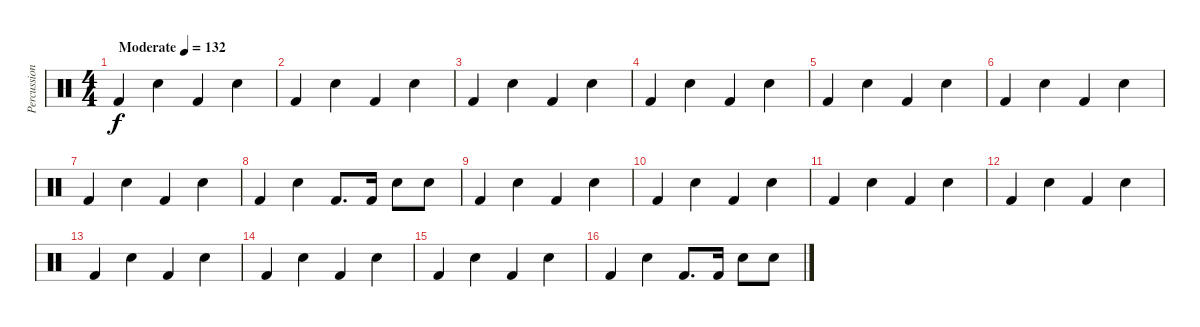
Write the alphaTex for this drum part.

\track ("Percussion" "Percussion") {instrument percussion}
\staff {score}
\articulation defaults
\ts (4 4)
\tempo (132 "Moderate")
\clef neutral
\ks c "Kick (hit) 2".4{dy f} "Snare (hit) 2".4 "Kick (hit) 2".4 "Snare (hit) 2".4
|
"Kick (hit) 2".4 "Snare (hit) 2".4 "Kick (hit) 2".4 "Snare (hit) 2".4 |
"Kick (hit) 2".4 "Snare (hit) 2".4 "Kick (hit) 2".4 "Snare (hit) 2".4 |
"Kick (hit) 2".4 "Snare (hit) 2".4 "Kick (hit) 2".4 "Snare (hit) 2".4 |
"Kick (hit) 2".4 "Snare (hit) 2".4 "Kick (hit) 2".4 "Snare (hit) 2".4 |
"Kick (hit) 2".4 "Snare (hit) 2".4 "Kick (hit) 2".4 "Snare (hit) 2".4 |
"Kick (hit) 2".4 "Snare (hit) 2".4 "Kick (hit) 2".4 "Snare (hit) 2".4 |
"Kick (hit) 2".4 "Snare (hit) 2".4 "Kick (hit) 2".8{d} "Kick (hit) 2".16 "Snare (hit) 2".8 "Snare (hit) 2".8 |
"Kick (hit) 2".4 "Snare (hit) 2".4 "Kick (hit) 2".4 "Snare (hit) 2".4 |
"Kick (hit) 2".4 "Snare (hit) 2".4 "Kick (hit) 2".4 "Snare (hit) 2".4 |
"Kick (hit) 2".4 "Snare (hit) 2".4 "Kick (hit) 2".4 "Snare (hit) 2".4 |
"Kick (hit) 2".4 "Snare (hit) 2".4 "Kick (hit) 2".4 "Snare (hit) 2".4 |
"Kick (hit) 2".4 "Snare (hit) 2".4 "Kick (hit) 2".4 "Snare (hit) 2".4 |
"Kick (hit) 2".4 "Snare (hit) 2".4 "Kick (hit) 2".4 "Snare (hit) 2".4 |
"Kick (hit) 2".4 "Snare (hit) 2".4 "Kick (hit) 2".4 "Snare (hit) 2".4 |
"Kick (hit) 2".4 "Snare (hit) 2".4 "Kick (hit) 2".8{d} "Kick (hit) 2".16 "Snare (hit) 2".8 "Snare (hit) 2".8
